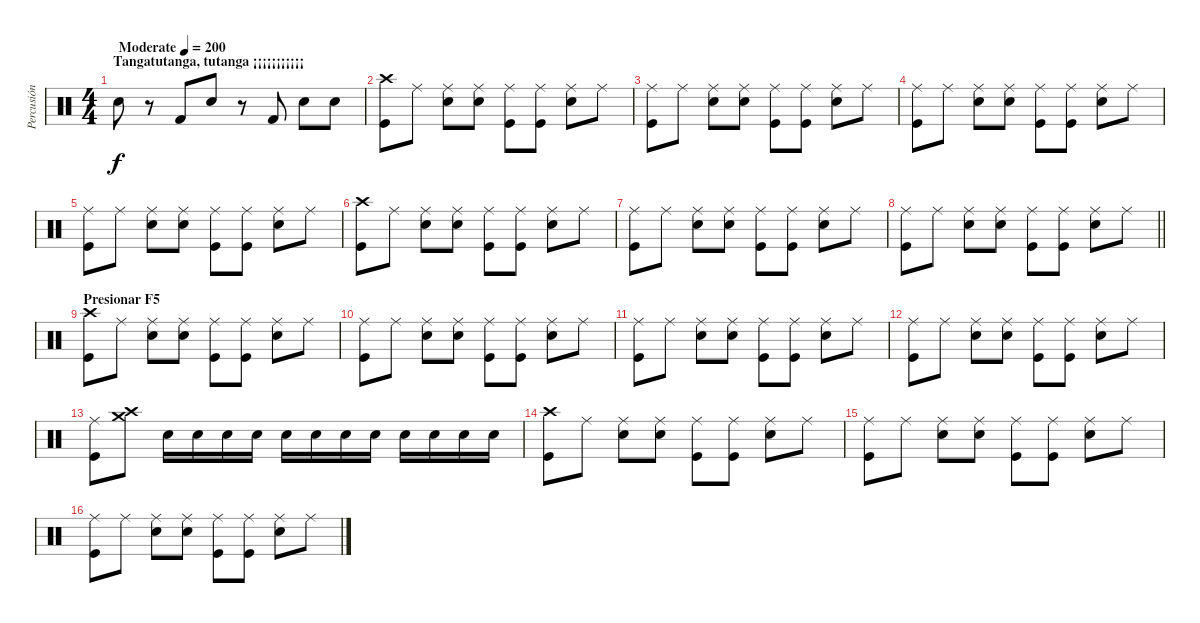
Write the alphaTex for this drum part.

\track ("Percusión" "Percusión") {instrument percussion}
\staff {score}
\articulation defaults
\ts (4 4)
\section ("" "Tangatutanga, tutanga ¡¡¡¡¡¡¡¡¡¡¡ ")
\tempo (200 "Moderate")
\clef neutral
\ks c "Snare (hit) 2".8{dy f}
r.8 "Kick (hit) 2".8 "Snare (hit) 2".8 r.8 "Kick (hit) 2".8 "Snare (hit) 2".8 "Snare (hit) 2".8 |
("Crash high (hit)" "Kick (hit)").8 "Ride (middle)".8 ("Ride (middle)" "Snare (hit) 2").8 ("Ride (middle)" "Snare (hit) 2").8 ("Ride (middle)" "Kick (hit)").8 ("Ride (middle)" "Kick (hit)").8 ("Ride (middle)" "Snare (hit) 2").8 "Ride (middle)".8 |
("Ride (middle)" "Kick (hit)").8 "Ride (middle)".8 ("Ride (middle)" "Snare (hit) 2").8 ("Ride (middle)" "Snare (hit) 2").8 ("Ride (middle)" "Kick (hit)").8 ("Ride (middle)" "Kick (hit)").8 ("Ride (middle)" "Snare (hit) 2").8 "Ride (middle)".8 |
("Ride (middle)" "Kick (hit)").8 "Ride (middle)".8 ("Ride (middle)" "Snare (hit) 2").8 ("Ride (middle)" "Snare (hit) 2").8 ("Ride (middle)" "Kick (hit)").8 ("Ride (middle)" "Kick (hit)").8 ("Ride (middle)" "Snare (hit) 2").8 "Ride (middle)".8 |
("Ride (middle)" "Kick (hit)").8 "Ride (middle)".8 ("Ride (middle)" "Snare (hit) 2").8 ("Ride (middle)" "Snare (hit) 2").8 ("Ride (middle)" "Kick (hit)").8 ("Ride (middle)" "Kick (hit)").8 ("Ride (middle)" "Snare (hit) 2").8 "Ride (middle)".8 |
("Crash high (hit)" "Kick (hit)").8 "Ride (middle)".8 ("Ride (middle)" "Snare (hit) 2").8 ("Ride (middle)" "Snare (hit) 2").8 ("Ride (middle)" "Kick (hit)").8 ("Ride (middle)" "Kick (hit)").8 ("Ride (middle)" "Snare (hit) 2").8 "Ride (middle)".8 |
("Ride (middle)" "Kick (hit)").8 "Ride (middle)".8 ("Ride (middle)" "Snare (hit) 2").8 ("Ride (middle)" "Snare (hit) 2").8 ("Ride (middle)" "Kick (hit)").8 ("Ride (middle)" "Kick (hit)").8 ("Ride (middle)" "Snare (hit) 2").8 "Ride (middle)".8 |
\barLineRight lightlight
("Ride (middle)" "Kick (hit)").8 "Ride (middle)".8 ("Ride (middle)" "Snare (hit) 2").8 ("Ride (middle)" "Snare (hit) 2").8 ("Ride (middle)" "Kick (hit)").8 ("Ride (middle)" "Kick (hit)").8 ("Ride (middle)" "Snare (hit) 2").8 "Ride (middle)".8 |
\section ("" "Presionar F5")
("Crash high (hit)" "Kick (hit)").8 "Ride (middle)".8 ("Ride (middle)" "Snare (hit) 2").8 ("Ride (middle)" "Snare (hit) 2").8 ("Ride (middle)" "Kick (hit)").8 ("Ride (middle)" "Kick (hit)").8 ("Ride (middle)" "Snare (hit) 2").8 "Ride (middle)".8 |
("Ride (middle)" "Kick (hit)").8 "Ride (middle)".8 ("Ride (middle)" "Snare (hit) 2").8 ("Ride (middle)" "Snare (hit) 2").8 ("Ride (middle)" "Kick (hit)").8 ("Ride (middle)" "Kick (hit)").8 ("Ride (middle)" "Snare (hit) 2").8 "Ride (middle)".8 |
("Ride (middle)" "Kick (hit)").8 "Ride (middle)".8 ("Ride (middle)" "Snare (hit) 2").8 ("Ride (middle)" "Snare (hit) 2").8 ("Ride (middle)" "Kick (hit)").8 ("Ride (middle)" "Kick (hit)").8 ("Ride (middle)" "Snare (hit) 2").8 "Ride (middle)".8 |
("Ride (middle)" "Kick (hit)").8 "Ride (middle)".8 ("Ride (middle)" "Snare (hit) 2").8 ("Ride (middle)" "Snare (hit) 2").8 ("Ride (middle)" "Kick (hit)").8 ("Ride (middle)" "Kick (hit)").8 ("Ride (middle)" "Snare (hit) 2").8 "Ride (middle)".8 |
("Ride (middle)" "Kick (hit)").8 ("Crash high (hit)" "Crash medium (hit)").8 "Snare (hit) 2".16 "Snare (hit) 2".16 "Snare (hit) 2".16 "Snare (hit) 2".16 "Snare (hit) 2".16 "Snare (hit) 2".16 "Snare (hit) 2".16 "Snare (hit) 2".16 "Snare (hit) 2".16 "Snare (hit) 2".16 "Snare (hit) 2".16 "Snare (hit) 2".16 |
("Crash high (hit)" "Kick (hit)").8 "Ride (middle)".8 ("Ride (middle)" "Snare (hit) 2").8 ("Ride (middle)" "Snare (hit) 2").8 ("Ride (middle)" "Kick (hit)").8 ("Ride (middle)" "Kick (hit)").8 ("Ride (middle)" "Snare (hit) 2").8 "Ride (middle)".8 |
("Ride (middle)" "Kick (hit)").8 "Ride (middle)".8 ("Ride (middle)" "Snare (hit) 2").8 ("Ride (middle)" "Snare (hit) 2").8 ("Ride (middle)" "Kick (hit)").8 ("Ride (middle)" "Kick (hit)").8 ("Ride (middle)" "Snare (hit) 2").8 "Ride (middle)".8 |
("Ride (middle)" "Kick (hit)").8 "Ride (middle)".8 ("Ride (middle)" "Snare (hit) 2").8 ("Ride (middle)" "Snare (hit) 2").8 ("Ride (middle)" "Kick (hit)").8 ("Ride (middle)" "Kick (hit)").8 ("Ride (middle)" "Snare (hit) 2").8 "Ride (middle)".8
